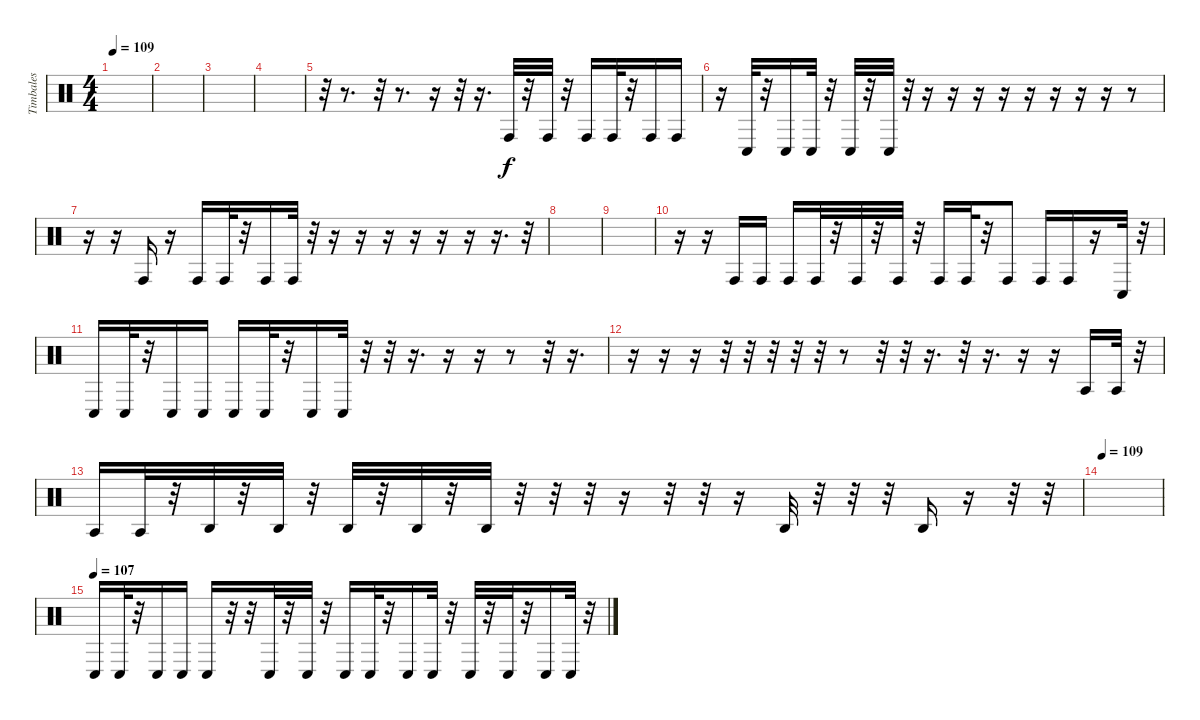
\track ("Timbales" "Timbales") {instrument percussion}
\staff {score}
\articulation defaults
\ts (4 4)
\tempo 109
\clef neutral
\ks c
|
|
|
|
r.32{volume 10} r.8{d} r.32 r.8{d} r.16 r.32 r.16{d} "Conga high (hit)".32 r.32 "Conga high (hit)".32 r.32 "Conga high (hit)".16 "Conga high (hit)".32 r.32 "Conga high (hit)".16 "Conga high (hit)".16 |
r.16 "Conga low (hit)".32 r.32 "Conga low (hit)".16 "Conga low (hit)".32 r.32 "Conga low (hit)".32 r.32 "Conga low (hit)".32 r.32 r.16 r.16 r.16 r.16 r.16 r.16 r.16 r.16 r.8 |
r.16 r.16 "Conga high (hit)".16 r.16 "Conga high (hit)".16 "Conga high (hit)".32 r.32 "Conga high (hit)".16 "Conga high (hit)".32 r.32 r.16 r.16 r.16 r.16 r.16 r.16 r.16{d} r.32 |
|
|
r.16 r.16 "Conga high (hit)".16 "Conga high (hit)".16 "Conga high (hit)".16 "Conga high (hit)".32 r.32 "Conga high (hit)".32 r.32 "Conga high (hit)".32 r.32 "Conga high (hit)".16 "Conga high (hit)".32 r.32 "Conga high (hit)".8 "Conga high (hit)".16 "Conga high (hit)".16 r.16 "Conga low (hit)".32 r.32 |
"Conga low (hit)".16 "Conga low (hit)".32 r.32 "Conga low (hit)".16 "Conga low (hit)".16 "Conga low (hit)".16 "Conga low (hit)".32 r.32 "Conga low (hit)".16 "Conga low (hit)".32 r.32 r.32 r.16{d} r.16 r.16 r.8 r.32 r.16{d} |
r.16 r.16 r.16 r.32 r.32 r.32 r.32 r.32 r.8 r.32 r.32 r.16{d} r.32 r.16{d} r.16 r.16 "Agogo tow (hit)".16 "Agogo tow (hit)".32 r.32 |
"Agogo tow (hit)".16 "Agogo tow (hit)".32 r.32 "Agogo high (hit)".32 r.32 "Agogo high (hit)".32 r.32 "Agogo high (hit)".32 r.32 "Agogo high (hit)".32 r.32 "Agogo high (hit)".32 r.32 r.32 r.32 r.16 r.32 r.32 r.16 "Agogo high (hit)".32 r.32 r.32 r.32 "Agogo high (hit)".16 r.16 r.32 r.32 |
\tempo 109
|
\tempo (107)
"Conga low (hit)".16 "Conga low (hit)".32 r.32 "Conga low (hit)".16 "Conga low (hit)".16 "Conga low (hit)".16 r.32 r.32 "Conga low (hit)".32 r.32 "Conga low (hit)".32 r.32 "Conga low (hit)".16 "Conga low (hit)".32 r.32 "Conga low (hit)".16 "Conga low (hit)".32 r.32 "Conga low (hit)".32 r.32 "Conga low (hit)".32 r.32 "Conga low (hit)".16 "Conga low (hit)".32 r.32
